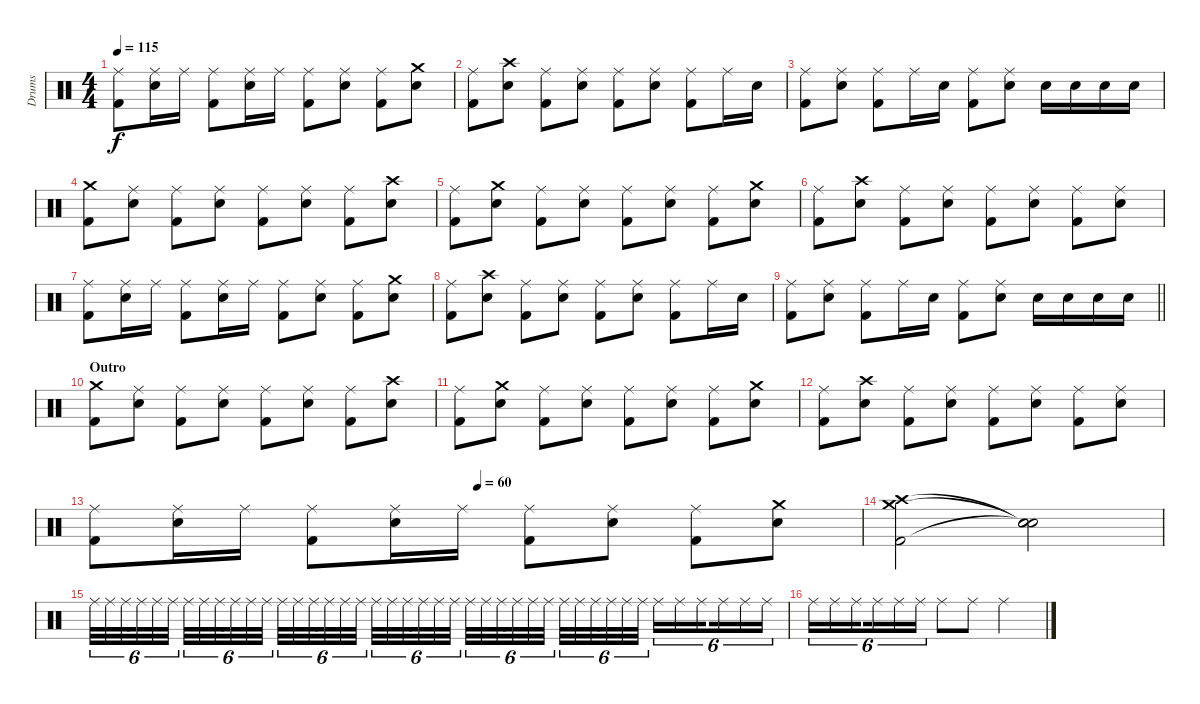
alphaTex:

\track ("Drums" "Drums") {instrument percussion}
\staff {score}
\articulation defaults
\ts (4 4)
\tempo 115
\clef neutral
\ks c
("Ride (middle)" "Kick (hit) 2").8{dy f} ("Ride (middle)" "Snare (hit) 2").16 "Ride (middle)".16 ("Ride (middle)" "Kick (hit) 2").8 ("Ride (middle)" "Snare (hit) 2").16 "Ride (middle)".16 ("Ride (middle)" "Kick (hit) 2").8 ("Ride (middle)" "Snare (hit) 2").8 ("Ride (middle)" "Kick (hit) 2").8 ("Crash medium (hit)" "Snare (hit) 2").8 |
("Ride (middle)" "Kick (hit) 2").8 ("Crash high (hit)" "Snare (hit) 2").8 ("Ride (middle)" "Kick (hit) 2").8 ("Ride (middle)" "Snare (hit) 2").8 ("Ride (middle)" "Kick (hit) 2").8 ("Ride (middle)" "Snare (hit) 2").8 ("Ride (middle)" "Kick (hit) 2").8 "Ride (middle)".16 "Snare (hit) 2".16 |
("Ride (middle)" "Kick (hit) 2").8 ("Ride (middle)" "Snare (hit) 2").8 ("Ride (middle)" "Kick (hit) 2").8 "Ride (middle)".16 "Snare (hit) 2".16 ("Ride (middle)" "Kick (hit) 2").8 ("Ride (middle)" "Snare (hit) 2").8 "Snare (hit) 2".16 "Snare (hit) 2".16 "Snare (hit) 2".16 "Snare (hit) 2".16 |
("Crash medium (hit)" "Kick (hit) 2").8 ("Ride (middle)" "Snare (hit) 2").8 ("Ride (middle)" "Kick (hit) 2").8 ("Ride (middle)" "Snare (hit) 2").8 ("Ride (middle)" "Kick (hit) 2").8 ("Ride (middle)" "Snare (hit) 2").8 ("Ride (middle)" "Kick (hit) 2").8 ("Crash high (hit)" "Snare (hit) 2").8 |
("Ride (middle)" "Kick (hit) 2").8 ("Crash medium (hit)" "Snare (hit) 2").8 ("Ride (middle)" "Kick (hit) 2").8 ("Ride (middle)" "Snare (hit) 2").8 ("Ride (middle)" "Kick (hit) 2").8 ("Ride (middle)" "Snare (hit) 2").8 ("Ride (middle)" "Kick (hit) 2").8 ("Crash medium (hit)" "Snare (hit) 2").8 |
("Ride (middle)" "Kick (hit) 2").8 ("Crash high (hit)" "Snare (hit) 2").8 ("Ride (middle)" "Kick (hit) 2").8 ("Ride (middle)" "Snare (hit) 2").8 ("Ride (middle)" "Kick (hit) 2").8 ("Ride (middle)" "Snare (hit) 2").8 ("Ride (middle)" "Kick (hit) 2").8 ("Ride (middle)" "Snare (hit) 2").8 |
("Ride (middle)" "Kick (hit) 2").8 ("Ride (middle)" "Snare (hit) 2").16 "Ride (middle)".16 ("Ride (middle)" "Kick (hit) 2").8 ("Ride (middle)" "Snare (hit) 2").16 "Ride (middle)".16 ("Ride (middle)" "Kick (hit) 2").8 ("Ride (middle)" "Snare (hit) 2").8 ("Ride (middle)" "Kick (hit) 2").8 ("Crash medium (hit)" "Snare (hit) 2").8 |
("Ride (middle)" "Kick (hit) 2").8 ("Crash high (hit)" "Snare (hit) 2").8 ("Ride (middle)" "Kick (hit) 2").8 ("Ride (middle)" "Snare (hit) 2").8 ("Ride (middle)" "Kick (hit) 2").8 ("Ride (middle)" "Snare (hit) 2").8 ("Ride (middle)" "Kick (hit) 2").8 "Ride (middle)".16 "Snare (hit) 2".16 |
\barLineRight lightlight
("Ride (middle)" "Kick (hit) 2").8 ("Ride (middle)" "Snare (hit) 2").8 ("Ride (middle)" "Kick (hit) 2").8 "Ride (middle)".16 "Snare (hit) 2".16 ("Ride (middle)" "Kick (hit) 2").8 ("Ride (middle)" "Snare (hit) 2").8 "Snare (hit) 2".16 "Snare (hit) 2".16 "Snare (hit) 2".16 "Snare (hit) 2".16 |
\section ("" "Outro")
("Crash medium (hit)" "Kick (hit) 2").8 ("Ride (middle)" "Snare (hit) 2").8 ("Ride (middle)" "Kick (hit) 2").8 ("Ride (middle)" "Snare (hit) 2").8 ("Ride (middle)" "Kick (hit) 2").8 ("Ride (middle)" "Snare (hit) 2").8 ("Ride (middle)" "Kick (hit) 2").8 ("Crash high (hit)" "Snare (hit) 2").8 |
("Ride (middle)" "Kick (hit) 2").8 ("Crash medium (hit)" "Snare (hit) 2").8 ("Ride (middle)" "Kick (hit) 2").8 ("Ride (middle)" "Snare (hit) 2").8 ("Ride (middle)" "Kick (hit) 2").8 ("Ride (middle)" "Snare (hit) 2").8 ("Ride (middle)" "Kick (hit) 2").8 ("Crash medium (hit)" "Snare (hit) 2").8 |
("Ride (middle)" "Kick (hit) 2").8 ("Crash high (hit)" "Snare (hit) 2").8 ("Ride (middle)" "Kick (hit) 2").8 ("Ride (middle)" "Snare (hit) 2").8 ("Ride (middle)" "Kick (hit) 2").8 ("Ride (middle)" "Snare (hit) 2").8 ("Ride (middle)" "Kick (hit) 2").8 ("Ride (middle)" "Snare (hit) 2").8 |
\tempo (60 0.5)
("Ride (middle)" "Kick (hit) 2").8 ("Ride (middle)" "Snare (hit) 2").16 "Ride (middle)".16 ("Ride (middle)" "Kick (hit) 2").8 ("Ride (middle)" "Snare (hit) 2").16 "Ride (middle)".16 ("Ride (middle)" "Kick (hit) 2").8 ("Ride (middle)" "Snare (hit) 2").8 ("Ride (middle)" "Kick (hit) 2").8 ("Crash medium (hit)" "Snare (hit) 2").8 |
("Crash medium (hit)" "Crash high (hit)" "Kick (hit) 2").2 ("Snare (hit)"{t} "Snare (hit)"{t} "Snare (hit)"{t}).2{volume 0} |
"Ride (middle)".32{tu (6 4) volume 13} "Ride (middle)".32{tu (6 4)} "Ride (middle)".32{tu (6 4) beam splitsecondary} "Ride (middle)".32{tu (6 4)} "Ride (middle)".32{tu (6 4)} "Ride (middle)".32{tu (6 4) beam splitsecondary} "Ride (middle)".32{tu (6 4)} "Ride (middle)".32{tu (6 4)} "Ride (middle)".32{tu (6 4) beam splitsecondary} "Ride (middle)".32{tu (6 4)} "Ride (middle)".32{tu (6 4)} "Ride (middle)".32{tu (6 4)} "Ride (middle)".32{tu (6 4)} "Ride (middle)".32{tu (6 4)} "Ride (middle)".32{tu (6 4) beam splitsecondary} "Ride (middle)".32{tu (6 4)} "Ride (middle)".32{tu (6 4)} "Ride (middle)".32{tu (6 4) beam splitsecondary} "Ride (middle)".32{tu (6 4)} "Ride (middle)".32{tu (6 4)} "Ride (middle)".32{tu (6 4) beam splitsecondary} "Ride (middle)".32{tu (6 4)} "Ride (middle)".32{tu (6 4)} "Ride (middle)".32{tu (6 4)} "Ride (middle)".32{tu (6 4) volume 0} "Ride (middle)".32{tu (6 4)} "Ride (middle)".32{tu (6 4) beam splitsecondary} "Ride (middle)".32{tu (6 4)} "Ride (middle)".32{tu (6 4)} "Ride (middle)".32{tu (6 4) beam splitsecondary} "Ride (middle)".32{tu (6 4)} "Ride (middle)".32{tu (6 4)} "Ride (middle)".32{tu (6 4) beam splitsecondary} "Ride (middle)".32{tu (6 4)} "Ride (middle)".32{tu (6 4)} "Ride (middle)".32{tu (6 4)} "Ride (middle)".16{tu (6 4)} "Ride (middle)".16{tu (6 4)} "Ride (middle)".16{tu (6 4) beam splitsecondary} "Ride (middle)".16{tu (6 4)} "Ride (middle)".16{tu (6 4)} "Ride (middle)".16{tu (6 4)} |
"Ride (middle)".16{tu (6 4)} "Ride (middle)".16{tu (6 4)} "Ride (middle)".16{tu (6 4) beam splitsecondary} "Ride (middle)".16{tu (6 4)} "Ride (middle)".16{tu (6 4)} "Ride (middle)".16{tu (6 4)} "Ride (middle)".8 "Ride (middle)".8 "Ride (middle)".2
